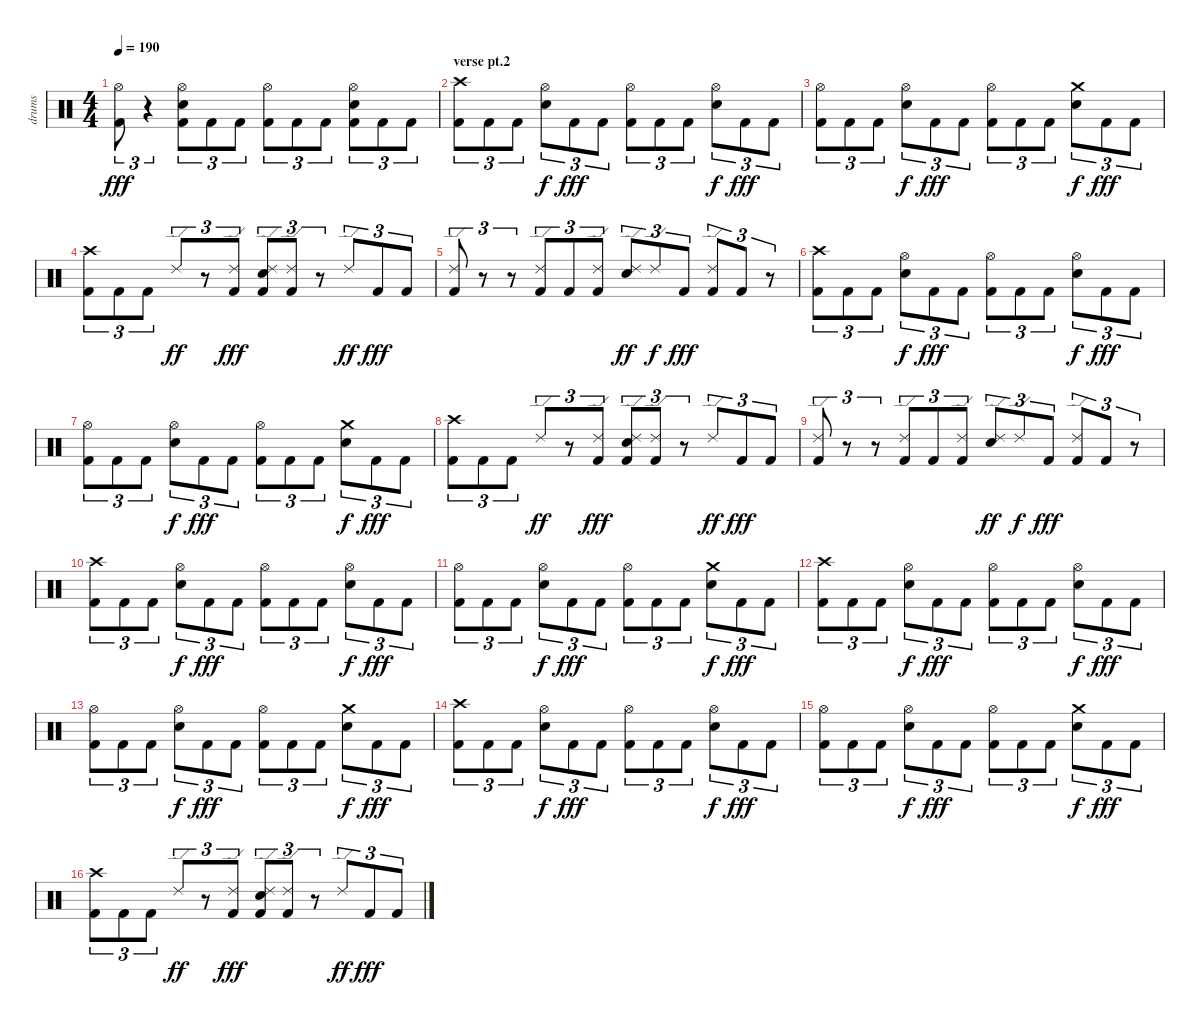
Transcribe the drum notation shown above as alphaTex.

\track ("drums" "drums") {instrument percussion}
\staff {score}
\articulation defaults
\ts (4 4)
\tempo 190
\clef neutral
\ks c
("Hi-Hat (open)" "Kick (hit) 2").8{tu (3 2) dy fff} r.4{tu (3 2)} ("Hi-Hat (open)" "Snare (hit) 2" "Kick (hit) 2").8{tu (3 2)} "Kick (hit) 2".8{tu (3 2)} "Kick (hit) 2".8{tu (3 2)} ("Hi-Hat (open)" "Kick (hit) 2").8{tu (3 2)} "Kick (hit) 2".8{tu (3 2)} "Kick (hit) 2".8{tu (3 2)} ("Hi-Hat (open)" "Snare (hit) 2" "Kick (hit) 2").8{tu (3 2)} "Kick (hit) 2".8{tu (3 2)} "Kick (hit) 2".8{tu (3 2)} |
\section ("" "verse pt.2")
("Crash high (hit)" "Kick (hit) 2").8{tu (3 2)} "Kick (hit) 2".8{tu (3 2)} "Kick (hit) 2".8{tu (3 2)} ("Hi-Hat (open)" "Snare (hit) 2").8{tu (3 2) dy f} "Kick (hit) 2".8{tu (3 2) dy fff} "Kick (hit) 2".8{tu (3 2)} ("Hi-Hat (open)" "Kick (hit) 2").8{tu (3 2)} "Kick (hit) 2".8{tu (3 2)} "Kick (hit) 2".8{tu (3 2)} ("Hi-Hat (open)" "Snare (hit) 2").8{tu (3 2) dy f} "Kick (hit) 2".8{tu (3 2) dy fff} "Kick (hit) 2".8{tu (3 2)} |
("Hi-Hat (open)" "Kick (hit) 2").8{tu (3 2)} "Kick (hit) 2".8{tu (3 2)} "Kick (hit) 2".8{tu (3 2)} ("Hi-Hat (open)" "Snare (hit) 2").8{tu (3 2) dy f} "Kick (hit) 2".8{tu (3 2) dy fff} "Kick (hit) 2".8{tu (3 2)} ("Hi-Hat (open)" "Kick (hit) 2").8{tu (3 2)} "Kick (hit) 2".8{tu (3 2)} "Kick (hit) 2".8{tu (3 2)} ("Crash medium (hit)" "Snare (hit) 2").8{tu (3 2) dy f} "Kick (hit) 2".8{tu (3 2) dy fff} "Kick (hit) 2".8{tu (3 2)} |
("Crash high (hit)" "Kick (hit) 2").8{tu (3 2)} "Kick (hit) 2".8{tu (3 2)} "Kick (hit) 2".8{tu (3 2)} "Ride (edge) 2".8{tu (3 2) dy ff} r.8{tu (3 2)} ("Ride (edge) 2" "Kick (hit) 2").8{tu (3 2) dy fff} ("Ride (edge) 2" "Snare (hit) 2" "Kick (hit) 2").8{tu (3 2)} ("Ride (edge) 2" "Kick (hit) 2").8{tu (3 2)} r.8{tu (3 2)} "Ride (edge) 2".8{tu (3 2) dy ff} "Kick (hit) 2".8{tu (3 2) dy fff} "Kick (hit) 2".8{tu (3 2)} |
("Ride (edge) 2" "Kick (hit) 2").8{tu (3 2)} r.8{tu (3 2)} r.8{tu (3 2)} ("Ride (edge) 2" "Kick (hit) 2").8{tu (3 2)} "Kick (hit) 2".8{tu (3 2)} ("Ride (edge) 2" "Kick (hit) 2").8{tu (3 2)} ("Ride (edge) 2" "Snare (hit) 2").8{tu (3 2) dy ff} "Ride (edge) 2".8{tu (3 2) dy f} "Kick (hit) 2".8{tu (3 2) dy fff} ("Ride (edge) 2" "Kick (hit) 2").8{tu (3 2)} "Kick (hit) 2".8{tu (3 2)} r.8{tu (3 2)} |
("Crash high (hit)" "Kick (hit) 2").8{tu (3 2)} "Kick (hit) 2".8{tu (3 2)} "Kick (hit) 2".8{tu (3 2)} ("Hi-Hat (open)" "Snare (hit) 2").8{tu (3 2) dy f} "Kick (hit) 2".8{tu (3 2) dy fff} "Kick (hit) 2".8{tu (3 2)} ("Hi-Hat (open)" "Kick (hit) 2").8{tu (3 2)} "Kick (hit) 2".8{tu (3 2)} "Kick (hit) 2".8{tu (3 2)} ("Hi-Hat (open)" "Snare (hit) 2").8{tu (3 2) dy f} "Kick (hit) 2".8{tu (3 2) dy fff} "Kick (hit) 2".8{tu (3 2)} |
("Hi-Hat (open)" "Kick (hit) 2").8{tu (3 2)} "Kick (hit) 2".8{tu (3 2)} "Kick (hit) 2".8{tu (3 2)} ("Hi-Hat (open)" "Snare (hit) 2").8{tu (3 2) dy f} "Kick (hit) 2".8{tu (3 2) dy fff} "Kick (hit) 2".8{tu (3 2)} ("Hi-Hat (open)" "Kick (hit) 2").8{tu (3 2)} "Kick (hit) 2".8{tu (3 2)} "Kick (hit) 2".8{tu (3 2)} ("Crash medium (hit)" "Snare (hit) 2").8{tu (3 2) dy f} "Kick (hit) 2".8{tu (3 2) dy fff} "Kick (hit) 2".8{tu (3 2)} |
("Crash high (hit)" "Kick (hit) 2").8{tu (3 2)} "Kick (hit) 2".8{tu (3 2)} "Kick (hit) 2".8{tu (3 2)} "Ride (edge) 2".8{tu (3 2) dy ff} r.8{tu (3 2)} ("Ride (edge) 2" "Kick (hit) 2").8{tu (3 2) dy fff} ("Ride (edge) 2" "Snare (hit) 2" "Kick (hit) 2").8{tu (3 2)} ("Ride (edge) 2" "Kick (hit) 2").8{tu (3 2)} r.8{tu (3 2)} "Ride (edge) 2".8{tu (3 2) dy ff} "Kick (hit) 2".8{tu (3 2) dy fff} "Kick (hit) 2".8{tu (3 2)} |
("Ride (edge) 2" "Kick (hit) 2").8{tu (3 2)} r.8{tu (3 2)} r.8{tu (3 2)} ("Ride (edge) 2" "Kick (hit) 2").8{tu (3 2)} "Kick (hit) 2".8{tu (3 2)} ("Ride (edge) 2" "Kick (hit) 2").8{tu (3 2)} ("Ride (edge) 2" "Snare (hit) 2").8{tu (3 2) dy ff} "Ride (edge) 2".8{tu (3 2) dy f} "Kick (hit) 2".8{tu (3 2) dy fff} ("Ride (edge) 2" "Kick (hit) 2").8{tu (3 2)} "Kick (hit) 2".8{tu (3 2)} r.8{tu (3 2)} |
("Crash high (hit)" "Kick (hit) 2").8{tu (3 2)} "Kick (hit) 2".8{tu (3 2)} "Kick (hit) 2".8{tu (3 2)} ("Hi-Hat (open)" "Snare (hit) 2").8{tu (3 2) dy f} "Kick (hit) 2".8{tu (3 2) dy fff} "Kick (hit) 2".8{tu (3 2)} ("Hi-Hat (open)" "Kick (hit) 2").8{tu (3 2)} "Kick (hit) 2".8{tu (3 2)} "Kick (hit) 2".8{tu (3 2)} ("Hi-Hat (open)" "Snare (hit) 2").8{tu (3 2) dy f} "Kick (hit) 2".8{tu (3 2) dy fff} "Kick (hit) 2".8{tu (3 2)} |
("Hi-Hat (open)" "Kick (hit) 2").8{tu (3 2)} "Kick (hit) 2".8{tu (3 2)} "Kick (hit) 2".8{tu (3 2)} ("Hi-Hat (open)" "Snare (hit) 2").8{tu (3 2) dy f} "Kick (hit) 2".8{tu (3 2) dy fff} "Kick (hit) 2".8{tu (3 2)} ("Hi-Hat (open)" "Kick (hit) 2").8{tu (3 2)} "Kick (hit) 2".8{tu (3 2)} "Kick (hit) 2".8{tu (3 2)} ("Crash medium (hit)" "Snare (hit) 2").8{tu (3 2) dy f} "Kick (hit) 2".8{tu (3 2) dy fff} "Kick (hit) 2".8{tu (3 2)} |
("Crash high (hit)" "Kick (hit) 2").8{tu (3 2)} "Kick (hit) 2".8{tu (3 2)} "Kick (hit) 2".8{tu (3 2)} ("Hi-Hat (open)" "Snare (hit) 2").8{tu (3 2) dy f} "Kick (hit) 2".8{tu (3 2) dy fff} "Kick (hit) 2".8{tu (3 2)} ("Hi-Hat (open)" "Kick (hit) 2").8{tu (3 2)} "Kick (hit) 2".8{tu (3 2)} "Kick (hit) 2".8{tu (3 2)} ("Hi-Hat (open)" "Snare (hit) 2").8{tu (3 2) dy f} "Kick (hit) 2".8{tu (3 2) dy fff} "Kick (hit) 2".8{tu (3 2)} |
("Hi-Hat (open)" "Kick (hit) 2").8{tu (3 2)} "Kick (hit) 2".8{tu (3 2)} "Kick (hit) 2".8{tu (3 2)} ("Hi-Hat (open)" "Snare (hit) 2").8{tu (3 2) dy f} "Kick (hit) 2".8{tu (3 2) dy fff} "Kick (hit) 2".8{tu (3 2)} ("Hi-Hat (open)" "Kick (hit) 2").8{tu (3 2)} "Kick (hit) 2".8{tu (3 2)} "Kick (hit) 2".8{tu (3 2)} ("Crash medium (hit)" "Snare (hit) 2").8{tu (3 2) dy f} "Kick (hit) 2".8{tu (3 2) dy fff} "Kick (hit) 2".8{tu (3 2)} |
("Crash high (hit)" "Kick (hit) 2").8{tu (3 2)} "Kick (hit) 2".8{tu (3 2)} "Kick (hit) 2".8{tu (3 2)} ("Hi-Hat (open)" "Snare (hit) 2").8{tu (3 2) dy f} "Kick (hit) 2".8{tu (3 2) dy fff} "Kick (hit) 2".8{tu (3 2)} ("Hi-Hat (open)" "Kick (hit) 2").8{tu (3 2)} "Kick (hit) 2".8{tu (3 2)} "Kick (hit) 2".8{tu (3 2)} ("Hi-Hat (open)" "Snare (hit) 2").8{tu (3 2) dy f} "Kick (hit) 2".8{tu (3 2) dy fff} "Kick (hit) 2".8{tu (3 2)} |
("Hi-Hat (open)" "Kick (hit) 2").8{tu (3 2)} "Kick (hit) 2".8{tu (3 2)} "Kick (hit) 2".8{tu (3 2)} ("Hi-Hat (open)" "Snare (hit) 2").8{tu (3 2) dy f} "Kick (hit) 2".8{tu (3 2) dy fff} "Kick (hit) 2".8{tu (3 2)} ("Hi-Hat (open)" "Kick (hit) 2").8{tu (3 2)} "Kick (hit) 2".8{tu (3 2)} "Kick (hit) 2".8{tu (3 2)} ("Crash medium (hit)" "Snare (hit) 2").8{tu (3 2) dy f} "Kick (hit) 2".8{tu (3 2) dy fff} "Kick (hit) 2".8{tu (3 2)} |
("Crash high (hit)" "Kick (hit) 2").8{tu (3 2)} "Kick (hit) 2".8{tu (3 2)} "Kick (hit) 2".8{tu (3 2)} "Ride (edge) 2".8{tu (3 2) dy ff} r.8{tu (3 2)} ("Ride (edge) 2" "Kick (hit) 2").8{tu (3 2) dy fff} ("Ride (edge) 2" "Snare (hit) 2" "Kick (hit) 2").8{tu (3 2)} ("Ride (edge) 2" "Kick (hit) 2").8{tu (3 2)} r.8{tu (3 2)} "Ride (edge) 2".8{tu (3 2) dy ff} "Kick (hit) 2".8{tu (3 2) dy fff} "Kick (hit) 2".8{tu (3 2)}
